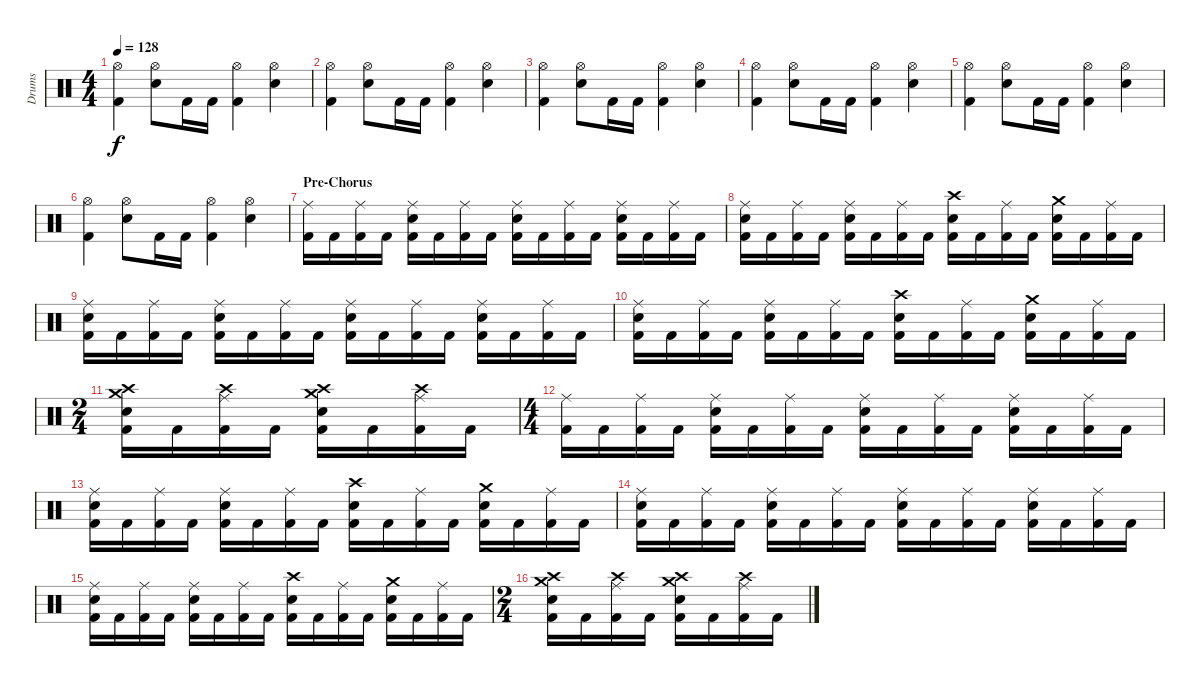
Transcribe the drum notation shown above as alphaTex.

\track ("Drums" "Drums") {instrument percussion}
\staff {score}
\articulation defaults
\ts (4 4)
\tempo 128
\clef neutral
\ks c
("Hi-Hat (open)" "Kick (hit) 2").4{dy f} ("Hi-Hat (open)" "Snare (hit) 2").8 "Kick (hit) 2".16 "Kick (hit) 2".16 ("Hi-Hat (open)" "Kick (hit) 2").4 ("Hi-Hat (open)" "Snare (hit) 2").4 |
("Hi-Hat (open)" "Kick (hit) 2").4 ("Hi-Hat (open)" "Snare (hit) 2").8 "Kick (hit) 2".16 "Kick (hit) 2".16 ("Hi-Hat (open)" "Kick (hit) 2").4 ("Hi-Hat (open)" "Snare (hit) 2").4 |
("Hi-Hat (open)" "Kick (hit) 2").4 ("Hi-Hat (open)" "Snare (hit) 2").8 "Kick (hit) 2".16 "Kick (hit) 2".16 ("Hi-Hat (open)" "Kick (hit) 2").4 ("Hi-Hat (open)" "Snare (hit) 2").4 |
("Hi-Hat (open)" "Kick (hit) 2").4 ("Hi-Hat (open)" "Snare (hit) 2").8 "Kick (hit) 2".16 "Kick (hit) 2".16 ("Hi-Hat (open)" "Kick (hit) 2").4 ("Hi-Hat (open)" "Snare (hit) 2").4 |
("Hi-Hat (open)" "Kick (hit) 2").4 ("Hi-Hat (open)" "Snare (hit) 2").8 "Kick (hit) 2".16 "Kick (hit) 2".16 ("Hi-Hat (open)" "Kick (hit) 2").4 ("Hi-Hat (open)" "Snare (hit) 2").4 |
("Hi-Hat (open)" "Kick (hit) 2").4 ("Hi-Hat (open)" "Snare (hit) 2").8 "Kick (hit) 2".16 "Kick (hit) 2".16 ("Hi-Hat (open)" "Kick (hit) 2").4 ("Hi-Hat (open)" "Snare (hit) 2").4 |
\section ("" "Pre-Chorus")
("Ride (middle)" "Kick (hit) 2").16 "Kick (hit) 2".16 ("Ride (middle)" "Kick (hit) 2").16 "Kick (hit) 2".16 ("Ride (middle)" "Snare (hit) 2" "Kick (hit) 2").16 "Kick (hit) 2".16 ("Ride (middle)" "Kick (hit) 2").16 "Kick (hit) 2".16 ("Ride (middle)" "Snare (hit) 2" "Kick (hit) 2").16 "Kick (hit) 2".16 ("Ride (middle)" "Kick (hit) 2").16 "Kick (hit) 2".16 ("Ride (middle)" "Snare (hit) 2" "Kick (hit) 2").16 "Kick (hit) 2".16 ("Ride (middle)" "Kick (hit) 2").16 "Kick (hit) 2".16 |
("Ride (middle)" "Snare (hit) 2" "Kick (hit) 2").16 "Kick (hit) 2".16 ("Ride (middle)" "Kick (hit) 2").16 "Kick (hit) 2".16 ("Ride (middle)" "Snare (hit) 2" "Kick (hit) 2").16 "Kick (hit) 2".16 ("Ride (middle)" "Kick (hit) 2").16 "Kick (hit) 2".16 ("Crash high (hit)" "Snare (hit) 2" "Kick (hit) 2").16 "Kick (hit) 2".16 ("Ride (middle)" "Kick (hit) 2").16 "Kick (hit) 2".16 ("Crash medium (hit)" "Snare (hit) 2" "Kick (hit) 2").16 "Kick (hit) 2".16 ("Ride (middle)" "Kick (hit) 2").16 "Kick (hit) 2".16 |
("Ride (middle)" "Snare (hit) 2" "Kick (hit) 2").16 "Kick (hit) 2".16 ("Ride (middle)" "Kick (hit) 2").16 "Kick (hit) 2".16 ("Ride (middle)" "Snare (hit) 2" "Kick (hit) 2").16 "Kick (hit) 2".16 ("Ride (middle)" "Kick (hit) 2").16 "Kick (hit) 2".16 ("Ride (middle)" "Snare (hit) 2" "Kick (hit) 2").16 "Kick (hit) 2".16 ("Ride (middle)" "Kick (hit) 2").16 "Kick (hit) 2".16 ("Ride (middle)" "Snare (hit) 2" "Kick (hit) 2").16 "Kick (hit) 2".16 ("Ride (middle)" "Kick (hit) 2").16 "Kick (hit) 2".16 |
("Ride (middle)" "Snare (hit) 2" "Kick (hit) 2").16 "Kick (hit) 2".16 ("Ride (middle)" "Kick (hit) 2").16 "Kick (hit) 2".16 ("Ride (middle)" "Snare (hit) 2" "Kick (hit) 2").16 "Kick (hit) 2".16 ("Ride (middle)" "Kick (hit) 2").16 "Kick (hit) 2".16 ("Crash high (hit)" "Snare (hit) 2" "Kick (hit) 2").16 "Kick (hit) 2".16 ("Ride (middle)" "Kick (hit) 2").16 "Kick (hit) 2".16 ("Crash medium (hit)" "Snare (hit) 2" "Kick (hit) 2").16 "Kick (hit) 2".16 ("Ride (middle)" "Kick (hit) 2").16 "Kick (hit) 2".16 |
\ts (2 4)
("Crash high (hit)" "Crash medium (hit)" "Snare (hit) 2" "Kick (hit) 2").16 "Kick (hit) 2".16 ("Ride (middle)" "Crash high (hit)" "Kick (hit) 2").16 "Kick (hit) 2".16 ("Crash medium (hit)" "Crash high (hit)" "Snare (hit) 2" "Kick (hit) 2").16 "Kick (hit) 2".16 ("Ride (middle)" "Crash high (hit)" "Kick (hit) 2").16 "Kick (hit) 2".16 |
\ts (4 4)
("Ride (middle)" "Kick (hit) 2").16 "Kick (hit) 2".16 ("Ride (middle)" "Kick (hit) 2").16 "Kick (hit) 2".16 ("Ride (middle)" "Snare (hit) 2" "Kick (hit) 2").16 "Kick (hit) 2".16 ("Ride (middle)" "Kick (hit) 2").16 "Kick (hit) 2".16 ("Ride (middle)" "Snare (hit) 2" "Kick (hit) 2").16 "Kick (hit) 2".16 ("Ride (middle)" "Kick (hit) 2").16 "Kick (hit) 2".16 ("Ride (middle)" "Snare (hit) 2" "Kick (hit) 2").16 "Kick (hit) 2".16 ("Ride (middle)" "Kick (hit) 2").16 "Kick (hit) 2".16 |
("Ride (middle)" "Snare (hit) 2" "Kick (hit) 2").16 "Kick (hit) 2".16 ("Ride (middle)" "Kick (hit) 2").16 "Kick (hit) 2".16 ("Ride (middle)" "Snare (hit) 2" "Kick (hit) 2").16 "Kick (hit) 2".16 ("Ride (middle)" "Kick (hit) 2").16 "Kick (hit) 2".16 ("Crash high (hit)" "Snare (hit) 2" "Kick (hit) 2").16 "Kick (hit) 2".16 ("Ride (middle)" "Kick (hit) 2").16 "Kick (hit) 2".16 ("Crash medium (hit)" "Snare (hit) 2" "Kick (hit) 2").16 "Kick (hit) 2".16 ("Ride (middle)" "Kick (hit) 2").16 "Kick (hit) 2".16 |
("Ride (middle)" "Snare (hit) 2" "Kick (hit) 2").16 "Kick (hit) 2".16 ("Ride (middle)" "Kick (hit) 2").16 "Kick (hit) 2".16 ("Ride (middle)" "Snare (hit) 2" "Kick (hit) 2").16 "Kick (hit) 2".16 ("Ride (middle)" "Kick (hit) 2").16 "Kick (hit) 2".16 ("Ride (middle)" "Snare (hit) 2" "Kick (hit) 2").16 "Kick (hit) 2".16 ("Ride (middle)" "Kick (hit) 2").16 "Kick (hit) 2".16 ("Ride (middle)" "Snare (hit) 2" "Kick (hit) 2").16 "Kick (hit) 2".16 ("Ride (middle)" "Kick (hit) 2").16 "Kick (hit) 2".16 |
("Ride (middle)" "Snare (hit) 2" "Kick (hit) 2").16 "Kick (hit) 2".16 ("Ride (middle)" "Kick (hit) 2").16 "Kick (hit) 2".16 ("Ride (middle)" "Snare (hit) 2" "Kick (hit) 2").16 "Kick (hit) 2".16 ("Ride (middle)" "Kick (hit) 2").16 "Kick (hit) 2".16 ("Crash high (hit)" "Snare (hit) 2" "Kick (hit) 2").16 "Kick (hit) 2".16 ("Ride (middle)" "Kick (hit) 2").16 "Kick (hit) 2".16 ("Crash medium (hit)" "Snare (hit) 2" "Kick (hit) 2").16 "Kick (hit) 2".16 ("Ride (middle)" "Kick (hit) 2").16 "Kick (hit) 2".16 |
\ts (2 4)
("Crash high (hit)" "Crash medium (hit)" "Snare (hit) 2" "Kick (hit) 2").16 "Kick (hit) 2".16 ("Ride (middle)" "Crash high (hit)" "Kick (hit) 2").16 "Kick (hit) 2".16 ("Crash medium (hit)" "Crash high (hit)" "Snare (hit) 2" "Kick (hit) 2").16 "Kick (hit) 2".16 ("Ride (middle)" "Crash high (hit)" "Kick (hit) 2").16 "Kick (hit) 2".16
